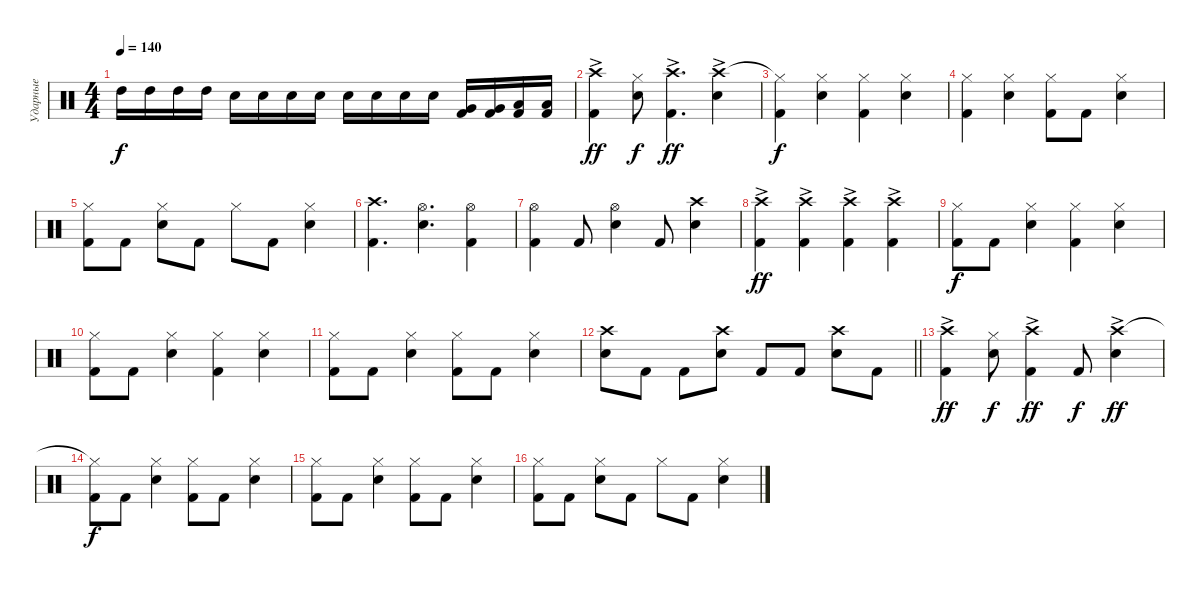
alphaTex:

\track ("Ударные" "Ударные") {instrument percussion}
\staff {score}
\articulation defaults
\ts (4 4)
\tempo 140
\clef neutral
\ks c "High Tom (hit)".16{dy f} "High Tom (hit)".16 "High Tom (hit)".16 "High Tom (hit)".16 "Snare (hit) 2".16 "Snare (hit) 2".16 "Snare (hit) 2".16 "Snare (hit) 2".16 "Snare (hit) 2".16 "Snare (hit) 2".16 "Snare (hit) 2".16 "Snare (hit) 2".16
("Kick (hit) 2" "Very Low Tom (hit)").16 ("Kick (hit) 2" "Very Low Tom (hit)").16 ("Kick (hit) 2" "Low Floor Tom (hit)").16 ("Kick (hit) 2" "Low Floor Tom (hit)").16 |
("Kick (hit) 2" "Crash high (hit)"{ac}).4{dy ff} ("Snare (hit) 2" "Hi-Hat (closed)").8{dy f} ("Kick (hit) 2" "Crash high (hit)"{ac}).4{d dy ff} ("Snare (hit) 2" "Crash high (hit)"{ac}).4 |
("Kick (hit) 2" "Hi-Hat (closed)"{t}).4{dy f} ("Snare (hit) 2" "Hi-Hat (closed)").4 ("Kick (hit) 2" "Hi-Hat (closed)").4 ("Snare (hit) 2" "Hi-Hat (closed)").4 |
("Kick (hit) 2" "Hi-Hat (closed)").4 ("Snare (hit) 2" "Hi-Hat (closed)").4 ("Kick (hit) 2" "Hi-Hat (closed)").8 "Kick (hit) 2".8 ("Snare (hit) 2" "Hi-Hat (closed)").4 |
("Kick (hit) 2" "Hi-Hat (closed)").8 "Kick (hit) 2".8 ("Snare (hit) 2" "Hi-Hat (closed)").8 "Kick (hit) 2".8 "Hi-Hat (closed)".8 "Kick (hit) 2".8 ("Snare (hit) 2" "Hi-Hat (closed)").4 |
("Kick (hit) 2" "Crash high (hit)").4{d} ("Snare (hit) 2" "Hi-Hat (open)").4{d} ("Kick (hit) 2" "Hi-Hat (open)").4 |
("Kick (hit) 2" "Hi-Hat (open)").4 "Kick (hit) 2".8 ("Snare (hit) 2" "Hi-Hat (open)").4 "Kick (hit) 2".8 ("Snare (hit) 2" "Crash high (hit)").4 |
("Kick (hit) 2" "Crash high (hit)"{ac}).4{dy ff} ("Kick (hit) 2" "Crash high (hit)"{ac}).4 ("Kick (hit) 2" "Crash high (hit)"{ac}).4 ("Kick (hit) 2" "Crash high (hit)"{ac}).4 |
("Kick (hit) 2" "Hi-Hat (closed)").8{dy f} "Kick (hit) 2".8 ("Snare (hit) 2" "Hi-Hat (closed)").4 ("Kick (hit) 2" "Hi-Hat (closed)").4 ("Snare (hit) 2" "Hi-Hat (closed)").4 |
("Kick (hit) 2" "Hi-Hat (closed)").8 "Kick (hit) 2".8 ("Snare (hit) 2" "Hi-Hat (closed)").4 ("Kick (hit) 2" "Hi-Hat (closed)").4 ("Snare (hit) 2" "Hi-Hat (closed)").4 |
("Kick (hit) 2" "Hi-Hat (closed)").8 "Kick (hit) 2".8 ("Snare (hit) 2" "Hi-Hat (closed)").4 ("Kick (hit) 2" "Hi-Hat (closed)").8 "Kick (hit) 2".8 ("Snare (hit) 2" "Hi-Hat (closed)").4 |
\barLineRight lightlight
("Snare (hit) 2" "Crash high (hit)").8 "Kick (hit) 2".8 "Kick (hit) 2".8 ("Snare (hit) 2" "Crash high (hit)").8 "Kick (hit) 2".8 "Kick (hit) 2".8 ("Snare (hit) 2" "Crash high (hit)").8 "Kick (hit) 2".8 |
("Kick (hit) 2" "Crash high (hit)"{ac}).4{dy ff} ("Snare (hit) 2" "Hi-Hat (closed)").8{dy f} ("Kick (hit) 2" "Crash high (hit)"{ac}).4{dy ff} "Kick (hit) 2".8{dy f} ("Snare (hit) 2" "Crash high (hit)"{ac}).4{dy ff} |
("Kick (hit) 2" "Hi-Hat (closed)"{t}).8{dy f} "Kick (hit) 2".8 ("Snare (hit) 2" "Hi-Hat (closed)").4 ("Kick (hit) 2" "Hi-Hat (closed)").8 "Kick (hit) 2".8 ("Snare (hit) 2" "Hi-Hat (closed)").4 |
("Kick (hit) 2" "Hi-Hat (closed)").8 "Kick (hit) 2".8 ("Snare (hit) 2" "Hi-Hat (closed)").4 ("Kick (hit) 2" "Hi-Hat (closed)").8 "Kick (hit) 2".8 ("Snare (hit) 2" "Hi-Hat (closed)").4 |
("Kick (hit) 2" "Hi-Hat (closed)").8 "Kick (hit) 2".8 ("Snare (hit) 2" "Hi-Hat (closed)").8 "Kick (hit) 2".8 "Hi-Hat (closed)".8 "Kick (hit) 2".8 ("Snare (hit) 2" "Hi-Hat (closed)").4
